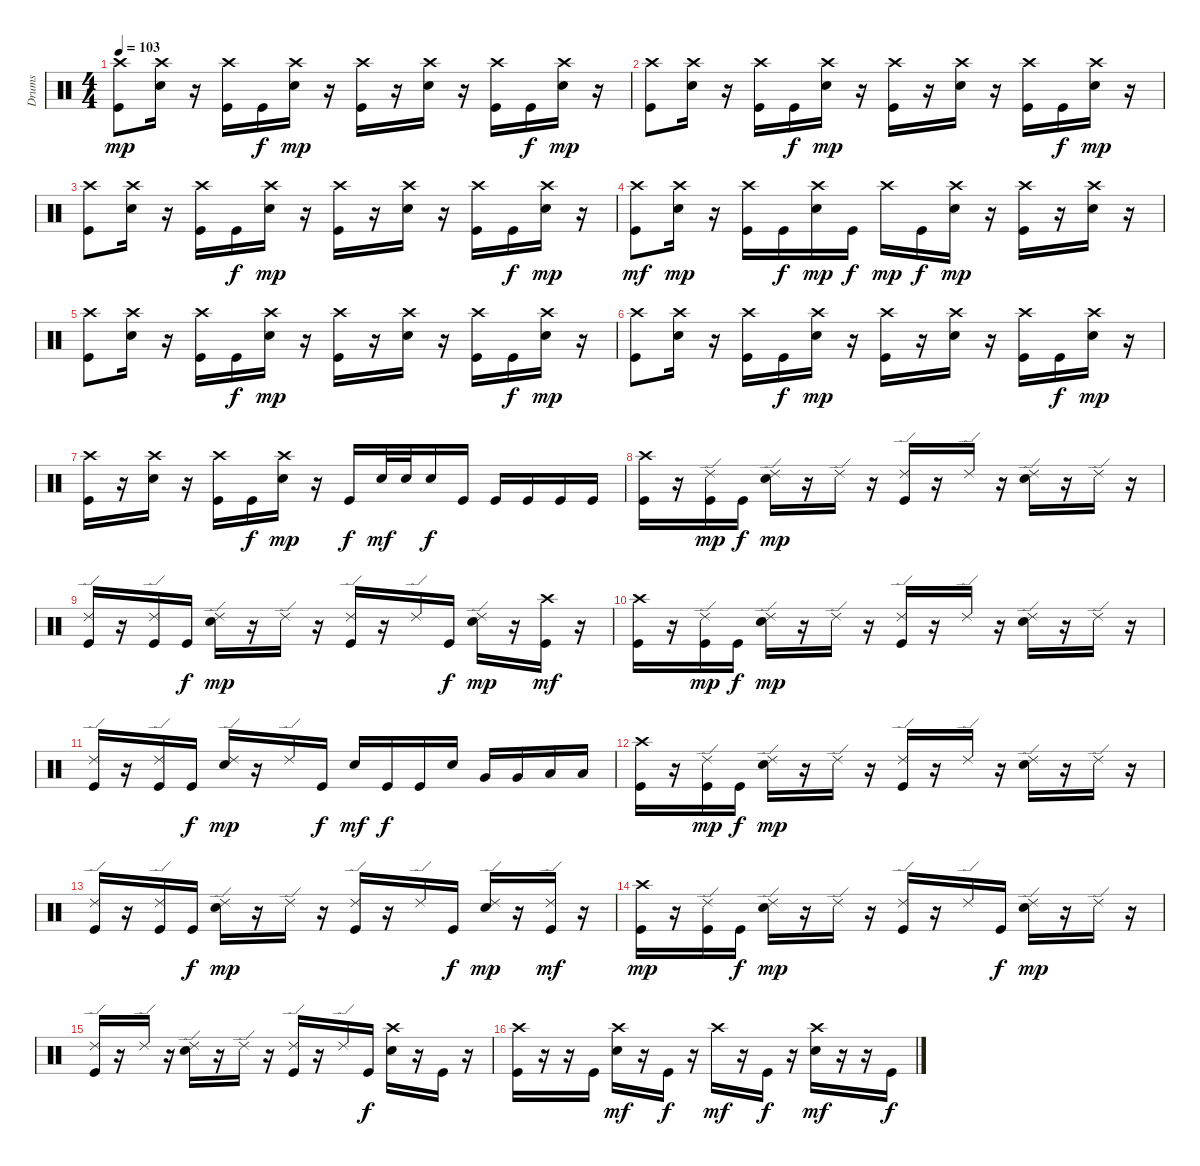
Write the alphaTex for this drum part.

\track ("Drums" "Drums") {instrument percussion}
\staff {score}
\articulation defaults
\ts (4 4)
\tempo 103
\clef neutral
\ks c
("Crash high (hit)" "Kick (hit)").8{dy mp} ("Crash high (hit)" "Snare (hit) 2").16 r.16 ("Crash high (hit)" "Kick (hit)").16 "Kick (hit)".16{dy f} ("Crash high (hit)" "Snare (hit) 2").16{dy mp} r.16 ("Crash high (hit)" "Kick (hit)").16 r.16 ("Crash high (hit)" "Snare (hit) 2").16 r.16 ("Crash high (hit)" "Kick (hit)").16 "Kick (hit)".16{dy f} ("Crash high (hit)" "Snare (hit) 2").16{dy mp} r.16 |
("Crash high (hit)" "Kick (hit)").8 ("Crash high (hit)" "Snare (hit) 2").16 r.16 ("Crash high (hit)" "Kick (hit)").16 "Kick (hit)".16{dy f} ("Crash high (hit)" "Snare (hit) 2").16{dy mp} r.16 ("Crash high (hit)" "Kick (hit)").16 r.16 ("Crash high (hit)" "Snare (hit) 2").16 r.16 ("Crash high (hit)" "Kick (hit)").16 "Kick (hit)".16{dy f} ("Crash high (hit)" "Snare (hit) 2").16{dy mp} r.16 |
("Crash high (hit)" "Kick (hit)").8 ("Crash high (hit)" "Snare (hit) 2").16 r.16 ("Crash high (hit)" "Kick (hit)").16 "Kick (hit)".16{dy f} ("Crash high (hit)" "Snare (hit) 2").16{dy mp} r.16 ("Crash high (hit)" "Kick (hit)").16 r.16 ("Crash high (hit)" "Snare (hit) 2").16 r.16 ("Crash high (hit)" "Kick (hit)").16 "Kick (hit)".16{dy f} ("Crash high (hit)" "Snare (hit) 2").16{dy mp} r.16 |
("Crash high (hit)" "Kick (hit)").8{dy mf} ("Crash high (hit)" "Snare (hit) 2").16{dy mp} r.16 ("Crash high (hit)" "Kick (hit)").16 "Kick (hit)".16{dy f} ("Crash high (hit)" "Snare (hit) 2").16{dy mp} "Kick (hit)".16{dy f} "Crash high (hit)".16{dy mp} "Kick (hit)".16{dy f} ("Crash high (hit)" "Snare (hit) 2").16{dy mp} r.16 ("Crash high (hit)" "Kick (hit)").16 r.16 ("Crash high (hit)" "Snare (hit) 2").16 r.16 |
("Crash high (hit)" "Kick (hit)").8 ("Crash high (hit)" "Snare (hit) 2").16 r.16 ("Crash high (hit)" "Kick (hit)").16 "Kick (hit)".16{dy f} ("Crash high (hit)" "Snare (hit) 2").16{dy mp} r.16 ("Crash high (hit)" "Kick (hit)").16 r.16 ("Crash high (hit)" "Snare (hit) 2").16 r.16 ("Crash high (hit)" "Kick (hit)").16 "Kick (hit)".16{dy f} ("Crash high (hit)" "Snare (hit) 2").16{dy mp} r.16 |
("Crash high (hit)" "Kick (hit)").8 ("Crash high (hit)" "Snare (hit) 2").16 r.16 ("Crash high (hit)" "Kick (hit)").16 "Kick (hit)".16{dy f} ("Crash high (hit)" "Snare (hit) 2").16{dy mp} r.16 ("Crash high (hit)" "Kick (hit)").16 r.16 ("Crash high (hit)" "Snare (hit) 2").16 r.16 ("Crash high (hit)" "Kick (hit)").16 "Kick (hit)".16{dy f} ("Crash high (hit)" "Snare (hit) 2").16{dy mp} r.16 |
("Crash high (hit)" "Kick (hit)").16 r.16 ("Crash high (hit)" "Snare (hit) 2").16 r.16 ("Crash high (hit)" "Kick (hit)").16 "Kick (hit)".16{dy f} ("Crash high (hit)" "Snare (hit) 2").16{dy mp} r.16 "Kick (hit)".16{dy f} "Snare (hit) 2".32{dy mf} "Snare (hit) 2".32 "Snare (hit) 2".16{dy f} "Kick (hit)".16 "Kick (hit)".16 "Kick (hit)".16 "Kick (hit)".16 "Kick (hit)".16 |
("Crash high (hit)" "Kick (hit)").16 r.16 ("Ride (edge) 2" "Kick (hit)").16{dy mp} "Kick (hit)".16{dy f} ("Ride (edge) 2" "Snare (hit) 2").16{dy mp} r.16 "Ride (edge) 2".16 r.16 ("Ride (edge) 2" "Kick (hit)").16 r.16 "Ride (edge) 2".16 r.16 ("Ride (edge) 2" "Snare (hit) 2").16 r.16 "Ride (edge) 2".16 r.16 |
("Ride (edge) 2" "Kick (hit)").16 r.16 ("Ride (edge) 2" "Kick (hit)").16 "Kick (hit)".16{dy f} ("Ride (edge) 2" "Snare (hit) 2").16{dy mp} r.16 "Ride (edge) 2".16 r.16 ("Ride (edge) 2" "Kick (hit)").16 r.16 "Ride (edge) 2".16 "Kick (hit)".16{dy f} ("Ride (edge) 2" "Snare (hit) 2").16{dy mp} r.16 ("Crash high (hit)" "Kick (hit)").16{dy mf} r.16 |
("Crash high (hit)" "Kick (hit)").16 r.16 ("Ride (edge) 2" "Kick (hit)").16{dy mp} "Kick (hit)".16{dy f} ("Ride (edge) 2" "Snare (hit) 2").16{dy mp} r.16 "Ride (edge) 2".16 r.16 ("Ride (edge) 2" "Kick (hit)").16 r.16 "Ride (edge) 2".16 r.16 ("Ride (edge) 2" "Snare (hit) 2").16 r.16 "Ride (edge) 2".16 r.16 |
("Ride (edge) 2" "Kick (hit)").16 r.16 ("Ride (edge) 2" "Kick (hit)").16 "Kick (hit)".16{dy f} ("Ride (edge) 2" "Snare (hit) 2").16{dy mp} r.16 "Ride (edge) 2".16 "Kick (hit)".16{dy f} "Snare (hit) 2".16{dy mf} "Kick (hit)".16{dy f} "Kick (hit)".16 "Snare (hit) 2".16 "Very Low Tom (hit)".16 "Very Low Tom (hit)".16 "Low Floor Tom (hit)".16 "Low Floor Tom (hit)".16 |
("Crash high (hit)" "Kick (hit)").16 r.16 ("Ride (edge) 2" "Kick (hit)").16{dy mp} "Kick (hit)".16{dy f} ("Ride (edge) 2" "Snare (hit) 2").16{dy mp} r.16 "Ride (edge) 2".16 r.16 ("Ride (edge) 2" "Kick (hit)").16 r.16 "Ride (edge) 2".16 r.16 ("Ride (edge) 2" "Snare (hit) 2").16 r.16 "Ride (edge) 2".16 r.16 |
("Ride (edge) 2" "Kick (hit)").16 r.16 ("Ride (edge) 2" "Kick (hit)").16 "Kick (hit)".16{dy f} ("Ride (edge) 2" "Snare (hit) 2").16{dy mp} r.16 "Ride (edge) 2".16 r.16 ("Ride (edge) 2" "Kick (hit)").16 r.16 "Ride (edge) 2".16 "Kick (hit)".16{dy f} ("Ride (edge) 2" "Snare (hit) 2").16{dy mp} r.16 ("Ride (edge) 2" "Kick (hit)").16{dy mf} r.16 |
("Crash high (hit)" "Kick (hit)").16{dy mp} r.16 ("Ride (edge) 2" "Kick (hit)").16 "Kick (hit)".16{dy f} ("Ride (edge) 2" "Snare (hit) 2").16{dy mp} r.16 "Ride (edge) 2".16 r.16 ("Ride (edge) 2" "Kick (hit)").16 r.16 "Ride (edge) 2".16 "Kick (hit)".16{dy f} ("Ride (edge) 2" "Snare (hit) 2").16{dy mp} r.16 "Ride (edge) 2".16 r.16 |
("Ride (edge) 2" "Kick (hit)").16 r.16 "Ride (edge) 2".16 r.16 ("Ride (edge) 2" "Snare (hit) 2").16 r.16 "Ride (edge) 2".16 r.16 ("Ride (edge) 2" "Kick (hit)").16 r.16 "Ride (edge) 2".16 "Kick (hit)".16{dy f} ("Crash high (hit)" "Snare (hit) 2").16 r.16 "Kick (hit)".16 r.16 |
("Crash high (hit)" "Kick (hit)").16 r.16 r.16 "Kick (hit)".16 ("Crash high (hit)" "Snare (hit) 2").16{dy mf} r.16 "Kick (hit)".16{dy f} r.16 "Crash high (hit)".16{dy mf} r.16 "Kick (hit)".16{dy f} r.16 ("Crash high (hit)" "Snare (hit) 2").16{dy mf} r.16 r.16 "Kick (hit)".16{dy f}
